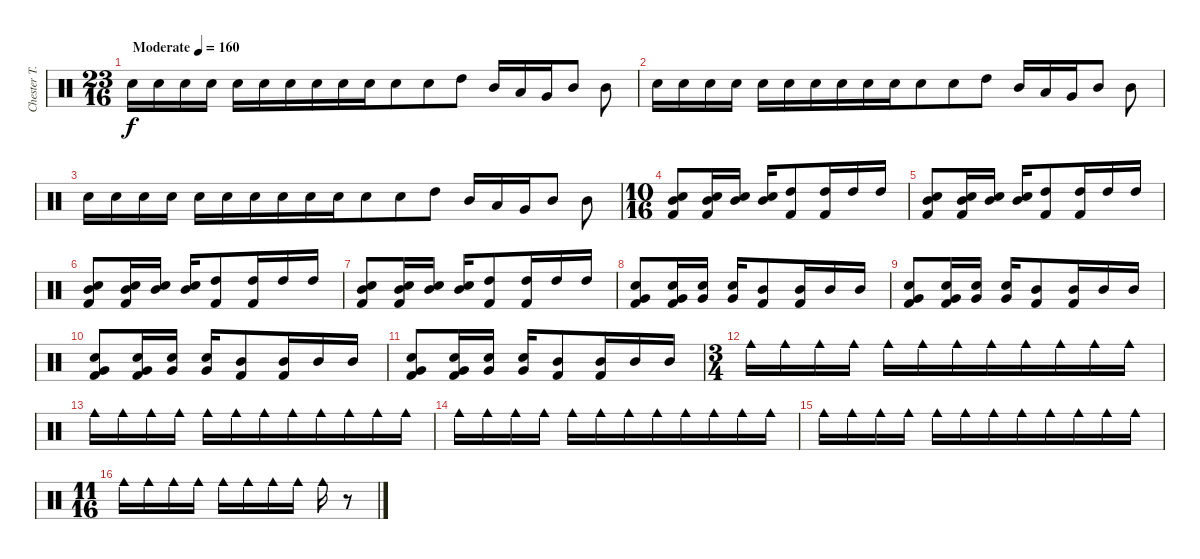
\track ("Chester T." "Chester T.") {instrument percussion}
\staff {score}
\articulation defaults
\ts (23 16)
\tempo (160 "Moderate")
\clef neutral
\ks c "Electric Snare (hit)".16{dy f} "Electric Snare (hit)".16{beam merge} "Electric Snare (hit)".16 "Electric Snare (hit)".16 "Electric Snare (hit)".16 "Electric Snare (hit)".16{beam merge} "Electric Snare (hit)".16 "Electric Snare (hit)".16{beam merge} "Electric Snare (hit)".16 "Electric Snare (hit)".16{beam merge} "Electric Snare (hit)".8{beam merge} "Electric Snare (hit)".8{beam merge} "High Tom (hit)".8 "Mid Tom (hit)".16 "Low Tom (hit)".16 "Very Low Tom (hit)".16 "Mid Tom (hit)".8 "Mid Tom (hit)".8
|
"Electric Snare (hit)".16 "Electric Snare (hit)".16{beam merge} "Electric Snare (hit)".16 "Electric Snare (hit)".16 "Electric Snare (hit)".16 "Electric Snare (hit)".16{beam merge} "Electric Snare (hit)".16 "Electric Snare (hit)".16{beam merge} "Electric Snare (hit)".16 "Electric Snare (hit)".16{beam merge} "Electric Snare (hit)".8{beam merge} "Electric Snare (hit)".8{beam merge} "High Tom (hit)".8 "Mid Tom (hit)".16 "Low Tom (hit)".16 "Very Low Tom (hit)".16 "Mid Tom (hit)".8 "Mid Tom (hit)".8 |
"Electric Snare (hit)".16 "Electric Snare (hit)".16{beam merge} "Electric Snare (hit)".16 "Electric Snare (hit)".16 "Electric Snare (hit)".16 "Electric Snare (hit)".16{beam merge} "Electric Snare (hit)".16 "Electric Snare (hit)".16{beam merge} "Electric Snare (hit)".16 "Electric Snare (hit)".16{beam merge} "Electric Snare (hit)".8{beam merge} "Electric Snare (hit)".8{beam merge} "High Tom (hit)".8 "Mid Tom (hit)".16 "Low Tom (hit)".16 "Very Low Tom (hit)".16 "Mid Tom (hit)".8 "Mid Tom (hit)".8 |
\ts (10 16)
("Mid Tom (hit)" "Electric Snare (hit)" "Kick (hit) 2").8{beam merge} ("Mid Tom (hit)" "Electric Snare (hit)" "Kick (hit) 2").16{beam merge} ("Mid Tom (hit)" "Electric Snare (hit)").16 ("Mid Tom (hit)" "Electric Snare (hit)").16 ("High Tom (hit)" "Kick (hit) 2").8 ("High Tom (hit)" "Kick (hit) 2").16{beam merge} "High Tom (hit)".16 "High Tom (hit)".16 |
("Mid Tom (hit)" "Electric Snare (hit)" "Kick (hit) 2").8{beam merge} ("Mid Tom (hit)" "Electric Snare (hit)" "Kick (hit) 2").16{beam merge} ("Mid Tom (hit)" "Electric Snare (hit)").16 ("Mid Tom (hit)" "Electric Snare (hit)").16 ("High Tom (hit)" "Kick (hit) 2").8 ("High Tom (hit)" "Kick (hit) 2").16{beam merge} "High Tom (hit)".16 "High Tom (hit)".16 |
("Mid Tom (hit)" "Electric Snare (hit)" "Kick (hit) 2").8{beam merge} ("Mid Tom (hit)" "Electric Snare (hit)" "Kick (hit) 2").16{beam merge} ("Mid Tom (hit)" "Electric Snare (hit)").16 ("Mid Tom (hit)" "Electric Snare (hit)").16 ("High Tom (hit)" "Kick (hit) 2").8 ("High Tom (hit)" "Kick (hit) 2").16{beam merge} "High Tom (hit)".16 "High Tom (hit)".16 |
("Mid Tom (hit)" "Electric Snare (hit)" "Kick (hit) 2").8{beam merge} ("Mid Tom (hit)" "Electric Snare (hit)" "Kick (hit) 2").16{beam merge} ("Mid Tom (hit)" "Electric Snare (hit)").16 ("Mid Tom (hit)" "Electric Snare (hit)").16 ("High Tom (hit)" "Kick (hit) 2").8 ("High Tom (hit)" "Kick (hit) 2").16{beam merge} "High Tom (hit)".16 "High Tom (hit)".16 |
("Very Low Tom (hit)" "Electric Snare (hit)" "Kick (hit) 2").8{beam merge} ("Very Low Tom (hit)" "Electric Snare (hit)" "Kick (hit) 2").16{beam merge} ("Very Low Tom (hit)" "Electric Snare (hit)").16 ("Very Low Tom (hit)" "Electric Snare (hit)").16 ("Mid Tom (hit)" "Kick (hit) 2").8 ("Mid Tom (hit)" "Kick (hit) 2").16{beam merge} "Mid Tom (hit)".16 "Mid Tom (hit)".16 |
("Very Low Tom (hit)" "Electric Snare (hit)" "Kick (hit) 2").8{beam merge} ("Very Low Tom (hit)" "Electric Snare (hit)" "Kick (hit) 2").16{beam merge} ("Very Low Tom (hit)" "Electric Snare (hit)").16 ("Very Low Tom (hit)" "Electric Snare (hit)").16 ("Mid Tom (hit)" "Kick (hit) 2").8 ("Mid Tom (hit)" "Kick (hit) 2").16{beam merge} "Mid Tom (hit)".16 "Mid Tom (hit)".16 |
("Very Low Tom (hit)" "Electric Snare (hit)" "Kick (hit) 2").8{beam merge} ("Very Low Tom (hit)" "Electric Snare (hit)" "Kick (hit) 2").16{beam merge} ("Very Low Tom (hit)" "Electric Snare (hit)").16 ("Very Low Tom (hit)" "Electric Snare (hit)").16 ("Mid Tom (hit)" "Kick (hit) 2").8 ("Mid Tom (hit)" "Kick (hit) 2").16{beam merge} "Mid Tom (hit)".16 "Mid Tom (hit)".16 |
("Very Low Tom (hit)" "Electric Snare (hit)" "Kick (hit) 2").8{beam merge} ("Very Low Tom (hit)" "Electric Snare (hit)" "Kick (hit) 2").16{beam merge} ("Very Low Tom (hit)" "Electric Snare (hit)").16 ("Very Low Tom (hit)" "Electric Snare (hit)").16 ("Mid Tom (hit)" "Kick (hit) 2").8 ("Mid Tom (hit)" "Kick (hit) 2").16{beam merge} "Mid Tom (hit)".16 "Mid Tom (hit)".16 |
\ts (3 4)
"Cowbell medium (hit)".16{beam merge} "Cowbell medium (hit)".16{beam merge} "Cowbell medium (hit)".16 "Cowbell medium (hit)".16 "Cowbell medium (hit)".16 "Cowbell medium (hit)".16{beam merge} "Cowbell medium (hit)".16{beam merge} "Cowbell medium (hit)".16{beam merge} "Cowbell medium (hit)".16{beam merge} "Cowbell medium (hit)".16{beam merge} "Cowbell medium (hit)".16{beam merge} "Cowbell medium (hit)".16 |
"Cowbell medium (hit)".16{beam merge} "Cowbell medium (hit)".16{beam merge} "Cowbell medium (hit)".16 "Cowbell medium (hit)".16 "Cowbell medium (hit)".16 "Cowbell medium (hit)".16{beam merge} "Cowbell medium (hit)".16{beam merge} "Cowbell medium (hit)".16{beam merge} "Cowbell medium (hit)".16{beam merge} "Cowbell medium (hit)".16{beam merge} "Cowbell medium (hit)".16{beam merge} "Cowbell medium (hit)".16 |
"Cowbell medium (hit)".16{beam merge} "Cowbell medium (hit)".16{beam merge} "Cowbell medium (hit)".16 "Cowbell medium (hit)".16 "Cowbell medium (hit)".16 "Cowbell medium (hit)".16{beam merge} "Cowbell medium (hit)".16{beam merge} "Cowbell medium (hit)".16{beam merge} "Cowbell medium (hit)".16{beam merge} "Cowbell medium (hit)".16{beam merge} "Cowbell medium (hit)".16{beam merge} "Cowbell medium (hit)".16 |
"Cowbell medium (hit)".16{beam merge} "Cowbell medium (hit)".16{beam merge} "Cowbell medium (hit)".16 "Cowbell medium (hit)".16 "Cowbell medium (hit)".16 "Cowbell medium (hit)".16{beam merge} "Cowbell medium (hit)".16{beam merge} "Cowbell medium (hit)".16{beam merge} "Cowbell medium (hit)".16{beam merge} "Cowbell medium (hit)".16{beam merge} "Cowbell medium (hit)".16{beam merge} "Cowbell medium (hit)".16 |
\ts (11 16)
"Cowbell medium (hit)".16 "Cowbell medium (hit)".16{beam merge} "Cowbell medium (hit)".16{beam merge} "Cowbell medium (hit)".16 "Cowbell medium (hit)".16{beam merge} "Cowbell medium (hit)".16 "Cowbell medium (hit)".16{beam merge} "Cowbell medium (hit)".16 "Cowbell medium (hit)".16{beam merge} r.8
